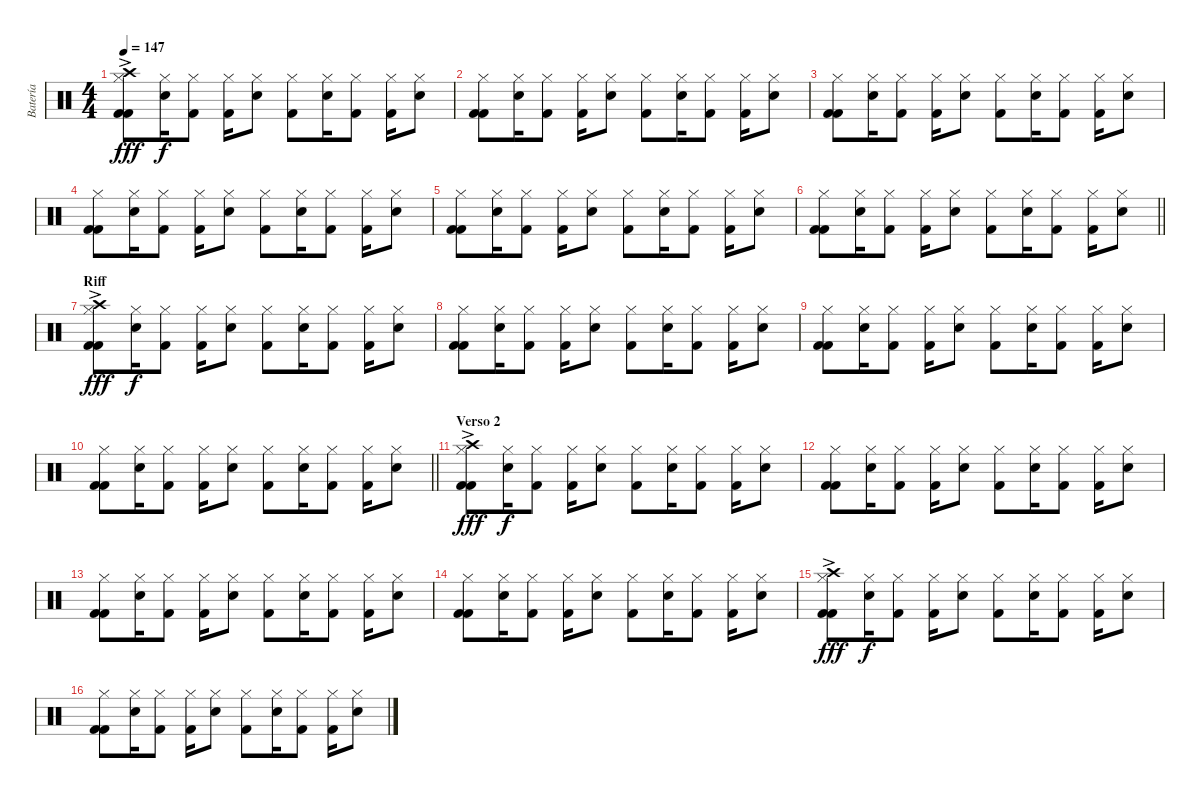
\track ("Batería" "Batería") {instrument percussion}
\staff {score}
\articulation defaults
\ts (4 4)
\tempo 147
\clef neutral
\ks c
("Crash high (hit)"{ac} "Hi-Hat (closed)" "Kick (hit) 2" "Kick (hit) 2").8{dy fff} ("Hi-Hat (closed)" "Electric Snare (hit)").16{dy f} ("Hi-Hat (closed)" "Kick (hit) 2").8 ("Hi-Hat (closed)" "Kick (hit) 2").16 ("Hi-Hat (closed)" "Electric Snare (hit)").8 ("Hi-Hat (closed)" "Kick (hit) 2").8 ("Hi-Hat (closed)" "Electric Snare (hit)").16 ("Hi-Hat (closed)" "Kick (hit) 2").8 ("Hi-Hat (closed)" "Kick (hit) 2").16 ("Hi-Hat (closed)" "Electric Snare (hit)").8 |
("Hi-Hat (closed)" "Kick (hit) 2" "Kick (hit) 2").8 ("Hi-Hat (closed)" "Electric Snare (hit)").16 ("Hi-Hat (closed)" "Kick (hit) 2").8 ("Hi-Hat (closed)" "Kick (hit) 2").16 ("Hi-Hat (closed)" "Electric Snare (hit)").8 ("Hi-Hat (closed)" "Kick (hit) 2").8 ("Hi-Hat (closed)" "Electric Snare (hit)").16 ("Hi-Hat (closed)" "Kick (hit) 2").8 ("Hi-Hat (closed)" "Kick (hit) 2").16 ("Hi-Hat (closed)" "Electric Snare (hit)").8 |
("Hi-Hat (closed)" "Kick (hit) 2" "Kick (hit) 2").8 ("Hi-Hat (closed)" "Electric Snare (hit)").16 ("Hi-Hat (closed)" "Kick (hit) 2").8 ("Hi-Hat (closed)" "Kick (hit) 2").16 ("Hi-Hat (closed)" "Electric Snare (hit)").8 ("Hi-Hat (closed)" "Kick (hit) 2").8 ("Hi-Hat (closed)" "Electric Snare (hit)").16 ("Hi-Hat (closed)" "Kick (hit) 2").8 ("Hi-Hat (closed)" "Kick (hit) 2").16 ("Hi-Hat (closed)" "Electric Snare (hit)").8 |
("Hi-Hat (closed)" "Kick (hit) 2" "Kick (hit) 2").8 ("Hi-Hat (closed)" "Electric Snare (hit)").16 ("Hi-Hat (closed)" "Kick (hit) 2").8 ("Hi-Hat (closed)" "Kick (hit) 2").16 ("Hi-Hat (closed)" "Electric Snare (hit)").8 ("Hi-Hat (closed)" "Kick (hit) 2").8 ("Hi-Hat (closed)" "Electric Snare (hit)").16 ("Hi-Hat (closed)" "Kick (hit) 2").8 ("Hi-Hat (closed)" "Kick (hit) 2").16 ("Hi-Hat (closed)" "Electric Snare (hit)").8 |
("Hi-Hat (closed)" "Kick (hit) 2" "Kick (hit) 2").8 ("Hi-Hat (closed)" "Electric Snare (hit)").16 ("Hi-Hat (closed)" "Kick (hit) 2").8 ("Hi-Hat (closed)" "Kick (hit) 2").16 ("Hi-Hat (closed)" "Electric Snare (hit)").8 ("Hi-Hat (closed)" "Kick (hit) 2").8 ("Hi-Hat (closed)" "Electric Snare (hit)").16 ("Hi-Hat (closed)" "Kick (hit) 2").8 ("Hi-Hat (closed)" "Kick (hit) 2").16 ("Hi-Hat (closed)" "Electric Snare (hit)").8 |
\barLineRight lightlight
("Hi-Hat (closed)" "Kick (hit) 2" "Kick (hit) 2").8 ("Hi-Hat (closed)" "Electric Snare (hit)").16 ("Hi-Hat (closed)" "Kick (hit) 2").8 ("Hi-Hat (closed)" "Kick (hit) 2").16 ("Hi-Hat (closed)" "Electric Snare (hit)").8 ("Hi-Hat (closed)" "Kick (hit) 2").8 ("Hi-Hat (closed)" "Electric Snare (hit)").16 ("Hi-Hat (closed)" "Kick (hit) 2").8 ("Hi-Hat (closed)" "Kick (hit) 2").16 ("Hi-Hat (closed)" "Electric Snare (hit)").8 |
\section ("" "Riff")
("Crash high (hit)"{ac} "Hi-Hat (closed)" "Kick (hit) 2" "Kick (hit) 2").8{dy fff} ("Hi-Hat (closed)" "Electric Snare (hit)").16{dy f} ("Hi-Hat (closed)" "Kick (hit) 2").8 ("Hi-Hat (closed)" "Kick (hit) 2").16 ("Hi-Hat (closed)" "Electric Snare (hit)").8 ("Hi-Hat (closed)" "Kick (hit) 2").8 ("Hi-Hat (closed)" "Electric Snare (hit)").16 ("Hi-Hat (closed)" "Kick (hit) 2").8 ("Hi-Hat (closed)" "Kick (hit) 2").16 ("Hi-Hat (closed)" "Electric Snare (hit)").8 |
("Hi-Hat (closed)" "Kick (hit) 2" "Kick (hit) 2").8 ("Hi-Hat (closed)" "Electric Snare (hit)").16 ("Hi-Hat (closed)" "Kick (hit) 2").8 ("Hi-Hat (closed)" "Kick (hit) 2").16 ("Hi-Hat (closed)" "Electric Snare (hit)").8 ("Hi-Hat (closed)" "Kick (hit) 2").8 ("Hi-Hat (closed)" "Electric Snare (hit)").16 ("Hi-Hat (closed)" "Kick (hit) 2").8 ("Hi-Hat (closed)" "Kick (hit) 2").16 ("Hi-Hat (closed)" "Electric Snare (hit)").8 |
("Hi-Hat (closed)" "Kick (hit) 2" "Kick (hit) 2").8 ("Hi-Hat (closed)" "Electric Snare (hit)").16 ("Hi-Hat (closed)" "Kick (hit) 2").8 ("Hi-Hat (closed)" "Kick (hit) 2").16 ("Hi-Hat (closed)" "Electric Snare (hit)").8 ("Hi-Hat (closed)" "Kick (hit) 2").8 ("Hi-Hat (closed)" "Electric Snare (hit)").16 ("Hi-Hat (closed)" "Kick (hit) 2").8 ("Hi-Hat (closed)" "Kick (hit) 2").16 ("Hi-Hat (closed)" "Electric Snare (hit)").8 |
\barLineRight lightlight
("Hi-Hat (closed)" "Kick (hit) 2" "Kick (hit) 2").8 ("Hi-Hat (closed)" "Electric Snare (hit)").16 ("Hi-Hat (closed)" "Kick (hit) 2").8 ("Hi-Hat (closed)" "Kick (hit) 2").16 ("Hi-Hat (closed)" "Electric Snare (hit)").8 ("Hi-Hat (closed)" "Kick (hit) 2").8 ("Hi-Hat (closed)" "Electric Snare (hit)").16 ("Hi-Hat (closed)" "Kick (hit) 2").8 ("Hi-Hat (closed)" "Kick (hit) 2").16 ("Hi-Hat (closed)" "Electric Snare (hit)").8 |
\section ("" "Verso 2")
("Crash high (hit)"{ac} "Hi-Hat (closed)" "Kick (hit) 2" "Kick (hit) 2").8{dy fff} ("Hi-Hat (closed)" "Electric Snare (hit)").16{dy f} ("Hi-Hat (closed)" "Kick (hit) 2").8 ("Hi-Hat (closed)" "Kick (hit) 2").16 ("Hi-Hat (closed)" "Electric Snare (hit)").8 ("Hi-Hat (closed)" "Kick (hit) 2").8 ("Hi-Hat (closed)" "Electric Snare (hit)").16 ("Hi-Hat (closed)" "Kick (hit) 2").8 ("Hi-Hat (closed)" "Kick (hit) 2").16 ("Hi-Hat (closed)" "Electric Snare (hit)").8 |
("Hi-Hat (closed)" "Kick (hit) 2" "Kick (hit) 2").8 ("Hi-Hat (closed)" "Electric Snare (hit)").16 ("Hi-Hat (closed)" "Kick (hit) 2").8 ("Hi-Hat (closed)" "Kick (hit) 2").16 ("Hi-Hat (closed)" "Electric Snare (hit)").8 ("Hi-Hat (closed)" "Kick (hit) 2").8 ("Hi-Hat (closed)" "Electric Snare (hit)").16 ("Hi-Hat (closed)" "Kick (hit) 2").8 ("Hi-Hat (closed)" "Kick (hit) 2").16 ("Hi-Hat (closed)" "Electric Snare (hit)").8 |
("Hi-Hat (closed)" "Kick (hit) 2" "Kick (hit) 2").8 ("Hi-Hat (closed)" "Electric Snare (hit)").16 ("Hi-Hat (closed)" "Kick (hit) 2").8 ("Hi-Hat (closed)" "Kick (hit) 2").16 ("Hi-Hat (closed)" "Electric Snare (hit)").8 ("Hi-Hat (closed)" "Kick (hit) 2").8 ("Hi-Hat (closed)" "Electric Snare (hit)").16 ("Hi-Hat (closed)" "Kick (hit) 2").8 ("Hi-Hat (closed)" "Kick (hit) 2").16 ("Hi-Hat (closed)" "Electric Snare (hit)").8 |
("Hi-Hat (closed)" "Kick (hit) 2" "Kick (hit) 2").8 ("Hi-Hat (closed)" "Electric Snare (hit)").16 ("Hi-Hat (closed)" "Kick (hit) 2").8 ("Hi-Hat (closed)" "Kick (hit) 2").16 ("Hi-Hat (closed)" "Electric Snare (hit)").8 ("Hi-Hat (closed)" "Kick (hit) 2").8 ("Hi-Hat (closed)" "Electric Snare (hit)").16 ("Hi-Hat (closed)" "Kick (hit) 2").8 ("Hi-Hat (closed)" "Kick (hit) 2").16 ("Hi-Hat (closed)" "Electric Snare (hit)").8 |
("Crash high (hit)"{ac} "Hi-Hat (closed)" "Kick (hit) 2" "Kick (hit) 2").8{dy fff} ("Hi-Hat (closed)" "Electric Snare (hit)").16{dy f} ("Hi-Hat (closed)" "Kick (hit) 2").8 ("Hi-Hat (closed)" "Kick (hit) 2").16 ("Hi-Hat (closed)" "Electric Snare (hit)").8 ("Hi-Hat (closed)" "Kick (hit) 2").8 ("Hi-Hat (closed)" "Electric Snare (hit)").16 ("Hi-Hat (closed)" "Kick (hit) 2").8 ("Hi-Hat (closed)" "Kick (hit) 2").16 ("Hi-Hat (closed)" "Electric Snare (hit)").8 |
("Hi-Hat (closed)" "Kick (hit) 2" "Kick (hit) 2").8 ("Hi-Hat (closed)" "Electric Snare (hit)").16 ("Hi-Hat (closed)" "Kick (hit) 2").8 ("Hi-Hat (closed)" "Kick (hit) 2").16 ("Hi-Hat (closed)" "Electric Snare (hit)").8 ("Hi-Hat (closed)" "Kick (hit) 2").8 ("Hi-Hat (closed)" "Electric Snare (hit)").16 ("Hi-Hat (closed)" "Kick (hit) 2").8 ("Hi-Hat (closed)" "Kick (hit) 2").16 ("Hi-Hat (closed)" "Electric Snare (hit)").8
